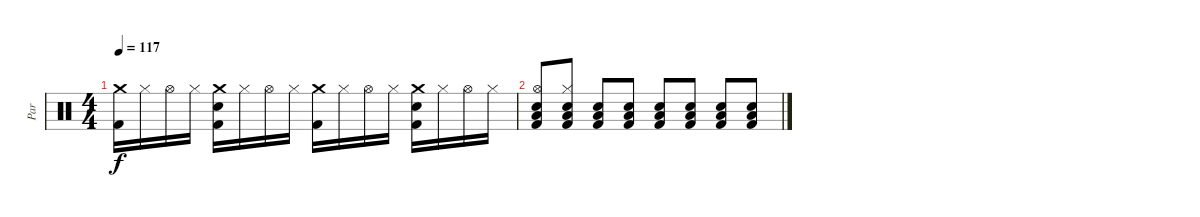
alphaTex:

\track ("Par" "Par") {instrument percussion}
\staff {score}
\articulation defaults
\ts (4 4)
\tempo 117
\clef neutral
\ks c
("Crash medium (hit)" "Kick (hit) 2").16{dy f} "Hi-Hat (closed)".16 "Hi-Hat (open)".16 "Hi-Hat (closed)".16 ("Crash medium (hit)" "Snare (hit) 2" "Kick (hit) 2").16 "Hi-Hat (closed)".16 "Hi-Hat (open)".16 "Hi-Hat (closed)".16 ("Crash medium (hit)" "Kick (hit) 2").16 "Hi-Hat (closed)".16 "Hi-Hat (open)".16 "Hi-Hat (closed)".16 ("Crash medium (hit)" "Snare (hit) 2" "Kick (hit) 2").16 "Hi-Hat (closed)".16 "Hi-Hat (open)".16 "Hi-Hat (closed)".16 |
("Hi-Hat (open)" "Low Floor Tom (hit)" "Snare (hit) 2" "Kick (hit) 2").8 ("Hi-Hat (closed)" "Low Floor Tom (hit)" "Snare (hit) 2" "Kick (hit) 2").8 ("Low Floor Tom (hit)" "Snare (hit) 2" "Kick (hit) 2").8 ("Low Floor Tom (hit)" "Snare (hit) 2" "Kick (hit) 2").8 ("Low Floor Tom (hit)" "Snare (hit) 2" "Kick (hit) 2").8 ("Low Floor Tom (hit)" "Snare (hit) 2" "Kick (hit) 2").8 ("Low Floor Tom (hit)" "Snare (hit) 2" "Kick (hit) 2").8 ("Low Floor Tom (hit)" "Snare (hit) 2" "Kick (hit) 2").8
